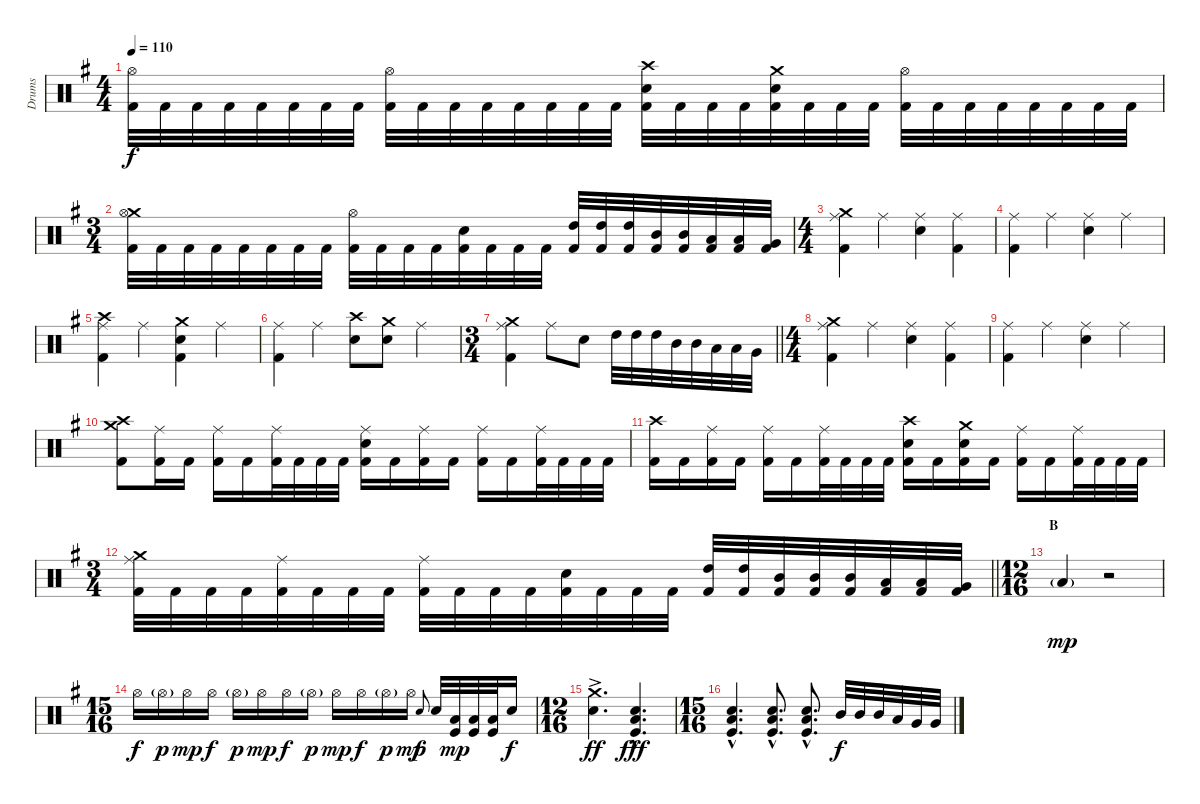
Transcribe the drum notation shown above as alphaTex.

\track ("Drums" "Drums") {instrument percussion}
\staff {score}
\articulation defaults
\ts (4 4)
\tempo 110
\clef neutral
\ks eminor
("Hi-Hat (open)" "Kick (hit) 2").32{dy f} "Kick (hit) 2".32 "Kick (hit) 2".32 "Kick (hit) 2".32 "Kick (hit) 2".32 "Kick (hit) 2".32 "Kick (hit) 2".32 "Kick (hit) 2".32 ("Hi-Hat (open)" "Kick (hit) 2").32 "Kick (hit) 2".32 "Kick (hit) 2".32 "Kick (hit) 2".32 "Kick (hit) 2".32 "Kick (hit) 2".32 "Kick (hit) 2".32 "Kick (hit) 2".32 ("Crash high (hit)" "Electric Snare (hit)" "Kick (hit) 2").32 "Kick (hit) 2".32 "Kick (hit) 2".32 "Kick (hit) 2".32 ("Crash medium (hit)" "Electric Snare (hit)" "Kick (hit) 2").32 "Kick (hit) 2".32 "Kick (hit) 2".32 "Kick (hit) 2".32 ("Hi-Hat (open)" "Kick (hit) 2").32 "Kick (hit) 2".32 "Kick (hit) 2".32 "Kick (hit) 2".32 "Kick (hit) 2".32 "Kick (hit) 2".32 "Kick (hit) 2".32 "Kick (hit) 2".32 |
\ts (3 4)
("Crash medium (hit)" "Hi-Hat (open)" "Kick (hit) 2").32 "Kick (hit) 2".32 "Kick (hit) 2".32 "Kick (hit) 2".32 "Kick (hit) 2".32 "Kick (hit) 2".32 "Kick (hit) 2".32 "Kick (hit) 2".32 ("Hi-Hat (open)" "Kick (hit) 2").32 "Kick (hit) 2".32 "Kick (hit) 2".32 "Kick (hit) 2".32 ("Electric Snare (hit)" "Kick (hit) 2").32 "Kick (hit) 2".32 "Kick (hit) 2".32 "Kick (hit) 2".32 ("High Tom (hit)" "Kick (hit) 2").32 ("High Tom (hit)" "Kick (hit) 2").32 ("High Tom (hit)" "Kick (hit) 2").32 ("Mid Tom (hit)" "Kick (hit) 2").32 ("Mid Tom (hit)" "Kick (hit) 2").32 ("Low Tom (hit)" "Kick (hit) 2").32 ("Low Tom (hit)" "Kick (hit) 2").32 ("Very Low Tom (hit)" "Kick (hit) 2").32 |
\ts (4 4)
("Crash medium (hit)" "Ride (middle)" "Kick (hit) 2").4 "Ride (middle)".4 ("Ride (middle)" "Electric Snare (hit)").4 ("Ride (middle)" "Kick (hit) 2").4 |
("Ride (middle)" "Kick (hit) 2").4 "Ride (middle)".4 ("Ride (middle)" "Electric Snare (hit)").4 "Ride (middle)".4 |
("Crash high (hit)" "Ride (middle)" "Kick (hit) 2").4 "Ride (middle)".4 ("Crash medium (hit)" "Electric Snare (hit)" "Kick (hit) 2").4 "Ride (middle)".4 |
("Ride (middle)" "Kick (hit) 2").4 "Ride (middle)".4 ("Crash high (hit)" "Electric Snare (hit)").8 ("Crash medium (hit)" "Electric Snare (hit)").8 "Ride (middle)".4 |
\ts (3 4)
\barLineRight lightlight
("Crash medium (hit)" "Ride (middle)" "Kick (hit) 2").4 "Ride (middle)".8 "Electric Snare (hit)".8 "High Tom (hit)".32 "High Tom (hit)".32 "High Tom (hit)".32 "Mid Tom (hit)".32 "Mid Tom (hit)".32 "Low Tom (hit)".32 "Low Tom (hit)".32 "Very Low Tom (hit)".32 |
\ts (4 4)
("Crash medium (hit)" "Ride (middle)" "Kick (hit) 2").4 "Ride (middle)".4 ("Ride (middle)" "Electric Snare (hit)").4 ("Ride (middle)" "Kick (hit) 2").4 |
("Ride (middle)" "Kick (hit) 2").4 "Ride (middle)".4 ("Ride (middle)" "Electric Snare (hit)").4 "Ride (middle)".4 |
("Crash high (hit)" "Crash medium (hit)" "Kick (hit) 2").8 ("Ride (middle)" "Kick (hit) 2").16 "Kick (hit) 2".16 ("Ride (middle)" "Kick (hit) 2").16 "Kick (hit) 2".16 ("Ride (middle)" "Kick (hit) 2").32 "Kick (hit) 2".32 "Kick (hit) 2".32 "Kick (hit) 2".32 ("Ride (middle)" "Electric Snare (hit)" "Kick (hit) 2").16 "Kick (hit) 2".16 ("Ride (middle)" "Kick (hit) 2").16 "Kick (hit) 2".16 ("Ride (middle)" "Kick (hit) 2").16 "Kick (hit) 2".16 ("Ride (middle)" "Kick (hit) 2").32 "Kick (hit) 2".32 "Kick (hit) 2".32 "Kick (hit) 2".32 |
("Crash high (hit)" "Kick (hit) 2").16 "Kick (hit) 2".16 ("Ride (middle)" "Kick (hit) 2").16 "Kick (hit) 2".16 ("Ride (middle)" "Kick (hit) 2").16 "Kick (hit) 2".16 ("Ride (middle)" "Kick (hit) 2").32 "Kick (hit) 2".32 "Kick (hit) 2".32 "Kick (hit) 2".32 ("Crash high (hit)" "Electric Snare (hit)" "Kick (hit) 2").16 "Kick (hit) 2".16 ("Crash medium (hit)" "Electric Snare (hit)" "Kick (hit) 2").16 "Kick (hit) 2".16 ("Ride (middle)" "Kick (hit) 2").16 "Kick (hit) 2".16 ("Ride (middle)" "Kick (hit) 2").32 "Kick (hit) 2".32 "Kick (hit) 2".32 "Kick (hit) 2".32 |
\ts (3 4)
\barLineRight lightlight
("Crash medium (hit)" "Ride (middle)" "Kick (hit) 2").32 "Kick (hit) 2".32 "Kick (hit) 2".32 "Kick (hit) 2".32 ("Ride (middle)" "Kick (hit) 2").32 "Kick (hit) 2".32 "Kick (hit) 2".32 "Kick (hit) 2".32 ("Ride (middle)" "Kick (hit) 2").32 "Kick (hit) 2".32 "Kick (hit) 2".32 "Kick (hit) 2".32 ("Electric Snare (hit)" "Kick (hit) 2").32 "Kick (hit) 2".32 "Kick (hit) 2".32 "Kick (hit) 2".32 ("High Tom (hit)" "Kick (hit) 2").32 ("High Tom (hit)" "Kick (hit) 2").32 ("Mid Tom (hit)" "Kick (hit) 2").32 ("Mid Tom (hit)" "Kick (hit) 2").32 ("Mid Tom (hit)" "Kick (hit) 2").32 ("Low Tom (hit)" "Kick (hit) 2").32 ("Low Tom (hit)" "Kick (hit) 2").32 ("Very Low Tom (hit)" "Kick (hit) 2").32 |
\ts (12 16)
\section ("" "B")
"Low Floor Tom (hit)"{g}.4{dy mp} r.2 |
\ts (15 16)
"Hi-Hat (open)".16{dy f} "Hi-Hat (open)"{g}.16{dy p} "Hi-Hat (open)".16{dy mp} "Hi-Hat (open)".16{dy f} "Hi-Hat (open)"{g}.16{dy p} "Hi-Hat (open)".16{dy mp} "Hi-Hat (open)".16{dy f} "Hi-Hat (open)"{g}.16{dy p} "Hi-Hat (open)".16{dy mp} "Hi-Hat (open)".16{dy f} "Hi-Hat (open)"{g}.16{dy p} "Hi-Hat (open)".16{dy mp} "Electric Snare (hit)".8{gr onbeat dy f} "Electric Snare (hit)".32 ("Low Floor Tom (hit)" "Kick (hit)").32{dy mp} ("Low Floor Tom (hit)" "Kick (hit)").32 ("Low Floor Tom (hit)" "Kick (hit)").32 "Electric Snare (hit)".16{dy f} |
\ts (12 16)
("Crash medium (hit)" "Electric Snare (hit)"{ac}).4{d dy ff} ("Low Floor Tom (hit)"{hac} "Electric Snare (hit)"{hac} "Kick (hit)").4{d dy fff} |
\ts (15 16)
("Low Floor Tom (hit)"{hac} "Electric Snare (hit)"{hac} "Kick (hit)").4{d} ("Low Floor Tom (hit)"{hac} "Electric Snare (hit)"{hac} "Kick (hit)").8{d} ("Low Floor Tom (hit)"{hac} "Electric Snare (hit)"{hac} "Kick (hit)").8{d} "Mid Tom (hit)".32{dy f} "Mid Tom (hit)".32 "Mid Tom (hit)".32 "Low Tom (hit)".32 "Very Low Tom (hit)".32 "Very Low Tom (hit)".32
